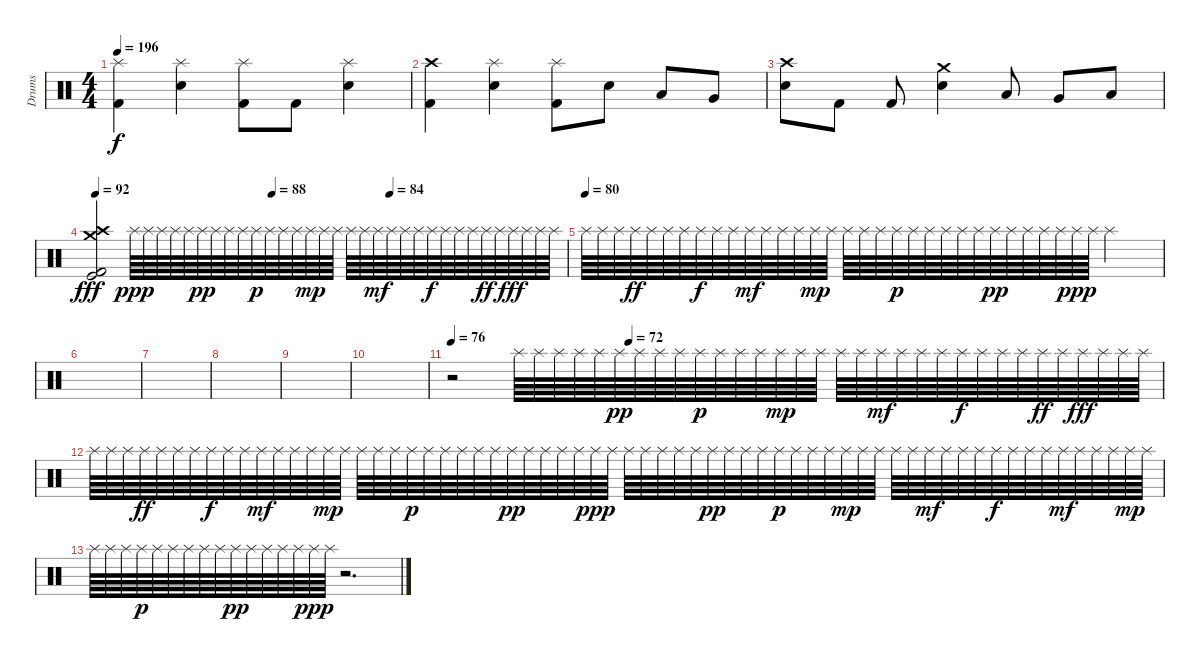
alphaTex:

\track ("Drums" "Drums") {instrument percussion}
\staff {score}
\articulation defaults
\ts (4 4)
\tempo 196
\clef neutral
\ks c
("Splash (hit)" "Kick (hit) 2").4{dy f} ("Splash (hit)" "Snare (hit) 2").4 ("Splash (hit)" "Kick (hit) 2").8 "Kick (hit) 2".8 ("Splash (hit)" "Snare (hit) 2").4 |
("Crash high (hit)" "Kick (hit) 2").4 ("Splash (hit)" "Snare (hit) 2").4 ("Splash (hit)" "Kick (hit) 2").8 "Snare (hit) 2".8 "Low Tom (hit)".8 "Very Low Tom (hit)".8 |
("Crash high (hit)" "Snare (hit) 2").8 "Kick (hit) 2".8 "Kick (hit) 2".8 ("Crash medium (hit)" "Snare (hit) 2").4 "Low Tom (hit)".8 "Very Low Tom (hit)".8 "Low Floor Tom (hit)".8 |
\tempo 92
\tempo (88 0.375)
\tempo (84 0.625)
("Crash medium (hit)" "Crash high (hit)" "Kick (hit)" "Kick (hit) 2").2{dy fff} "Splash (hit)".64{dy ppp} "Splash (hit)".64 "Splash (hit)".64 "Splash (hit)".64 "Splash (hit)".64 "Splash (hit)".64{dy pp} "Splash (hit)".64 "Splash (hit)".64 "Splash (hit)".64 "Splash (hit)".64{dy p} "Splash (hit)".64 "Splash (hit)".64 "Splash (hit)".64 "Splash (hit)".64{dy mp} "Splash (hit)".64 "Splash (hit)".64 "Splash (hit)".64 "Splash (hit)".64 "Splash (hit)".64{dy mf} "Splash (hit)".64 "Splash (hit)".64 "Splash (hit)".64 "Splash (hit)".64{dy f} "Splash (hit)".64 "Splash (hit)".64 "Splash (hit)".64 "Splash (hit)".64{dy ff} "Splash (hit)".64 "Splash (hit)".64{dy fff} "Splash (hit)".64 "Splash (hit)".64 "Splash (hit)".64 |
\tempo (80)
"Splash (hit)".64 "Splash (hit)".64 "Splash (hit)".64 "Splash (hit)".64{dy ff} "Splash (hit)".64 "Splash (hit)".64 "Splash (hit)".64 "Splash (hit)".64{dy f} "Splash (hit)".64 "Splash (hit)".64 "Splash (hit)".64{dy mf} "Splash (hit)".64 "Splash (hit)".64 "Splash (hit)".64 "Splash (hit)".64{dy mp} "Splash (hit)".64 "Splash (hit)".64 "Splash (hit)".64 "Splash (hit)".64 "Splash (hit)".64{dy p} "Splash (hit)".64 "Splash (hit)".64 "Splash (hit)".64 "Splash (hit)".64 "Splash (hit)".64 "Splash (hit)".64{dy pp} "Splash (hit)".64 "Splash (hit)".64 "Splash (hit)".64 "Splash (hit)".64 "Splash (hit)".64{dy ppp} "Splash (hit)".64 "Splash (hit)".2 |
|
|
|
|
|
\tempo 76
\tempo (72 0.25)
r.2 "Splash (hit)".64 "Splash (hit)".64 "Splash (hit)".64 "Splash (hit)".64 "Splash (hit)".64 "Splash (hit)".64{dy pp} "Splash (hit)".64 "Splash (hit)".64 "Splash (hit)".64 "Splash (hit)".64{dy p} "Splash (hit)".64 "Splash (hit)".64 "Splash (hit)".64 "Splash (hit)".64{dy mp} "Splash (hit)".64 "Splash (hit)".64 "Splash (hit)".64 "Splash (hit)".64 "Splash (hit)".64{dy mf} "Splash (hit)".64 "Splash (hit)".64 "Splash (hit)".64 "Splash (hit)".64{dy f} "Splash (hit)".64 "Splash (hit)".64 "Splash (hit)".64 "Splash (hit)".64{dy ff} "Splash (hit)".64 "Splash (hit)".64{dy fff} "Splash (hit)".64 "Splash (hit)".64 "Splash (hit)".64 |
"Splash (hit)".64 "Splash (hit)".64 "Splash (hit)".64 "Splash (hit)".64{dy ff} "Splash (hit)".64 "Splash (hit)".64 "Splash (hit)".64 "Splash (hit)".64{dy f} "Splash (hit)".64 "Splash (hit)".64 "Splash (hit)".64{dy mf} "Splash (hit)".64 "Splash (hit)".64 "Splash (hit)".64 "Splash (hit)".64{dy mp} "Splash (hit)".64 "Splash (hit)".64 "Splash (hit)".64 "Splash (hit)".64 "Splash (hit)".64{dy p} "Splash (hit)".64 "Splash (hit)".64 "Splash (hit)".64 "Splash (hit)".64 "Splash (hit)".64 "Splash (hit)".64{dy pp} "Splash (hit)".64 "Splash (hit)".64 "Splash (hit)".64 "Splash (hit)".64 "Splash (hit)".64{dy ppp} "Splash (hit)".64 "Splash (hit)".64 "Splash (hit)".64 "Splash (hit)".64 "Splash (hit)".64 "Splash (hit)".64 "Splash (hit)".64{dy pp} "Splash (hit)".64 "Splash (hit)".64 "Splash (hit)".64 "Splash (hit)".64{dy p} "Splash (hit)".64 "Splash (hit)".64 "Splash (hit)".64 "Splash (hit)".64{dy mp} "Splash (hit)".64 "Splash (hit)".64 "Splash (hit)".64 "Splash (hit)".64 "Splash (hit)".64{dy mf} "Splash (hit)".64 "Splash (hit)".64 "Splash (hit)".64 "Splash (hit)".64{dy f} "Splash (hit)".64 "Splash (hit)".64 "Splash (hit)".64 "Splash (hit)".64{dy mf} "Splash (hit)".64 "Splash (hit)".64 "Splash (hit)".64 "Splash (hit)".64{dy mp} "Splash (hit)".64 |
"Splash (hit)".64 "Splash (hit)".64 "Splash (hit)".64 "Splash (hit)".64{dy p} "Splash (hit)".64 "Splash (hit)".64 "Splash (hit)".64 "Splash (hit)".64 "Splash (hit)".64 "Splash (hit)".64{dy pp} "Splash (hit)".64 "Splash (hit)".64 "Splash (hit)".64 "Splash (hit)".64 "Splash (hit)".64{dy ppp} "Splash (hit)".64 r.2{d}
